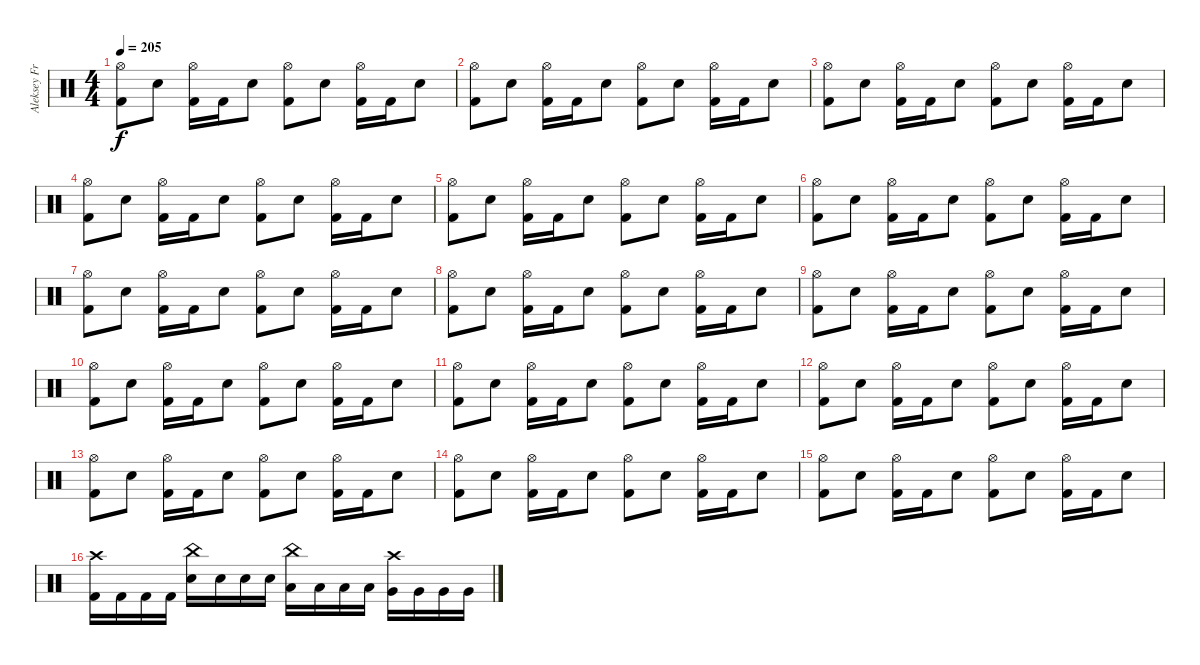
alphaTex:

\track ("Aleksey Frolov" "Aleksey Fr") {instrument percussion}
\staff {score}
\articulation defaults
\ts (4 4)
\tempo 205
\clef neutral
\ks c
("Kick (hit) 2" "Hi-Hat (open)").8{dy f} "Electric Snare (hit)".8 ("Kick (hit) 2" "Hi-Hat (open)").16 "Kick (hit) 2".16 "Electric Snare (hit)".8 ("Kick (hit) 2" "Hi-Hat (open)").8 "Electric Snare (hit)".8 ("Kick (hit) 2" "Hi-Hat (open)").16 "Kick (hit) 2".16 "Electric Snare (hit)".8 |
("Kick (hit) 2" "Hi-Hat (open)").8 "Electric Snare (hit)".8 ("Kick (hit) 2" "Hi-Hat (open)").16 "Kick (hit) 2".16 "Electric Snare (hit)".8 ("Kick (hit) 2" "Hi-Hat (open)").8 "Electric Snare (hit)".8 ("Kick (hit) 2" "Hi-Hat (open)").16 "Kick (hit) 2".16 "Electric Snare (hit)".8 |
("Kick (hit) 2" "Hi-Hat (open)").8 "Electric Snare (hit)".8 ("Kick (hit) 2" "Hi-Hat (open)").16 "Kick (hit) 2".16 "Electric Snare (hit)".8 ("Kick (hit) 2" "Hi-Hat (open)").8 "Electric Snare (hit)".8 ("Kick (hit) 2" "Hi-Hat (open)").16 "Kick (hit) 2".16 "Electric Snare (hit)".8 |
("Kick (hit) 2" "Hi-Hat (open)").8 "Electric Snare (hit)".8 ("Kick (hit) 2" "Hi-Hat (open)").16 "Kick (hit) 2".16 "Electric Snare (hit)".8 ("Kick (hit) 2" "Hi-Hat (open)").8 "Electric Snare (hit)".8 ("Kick (hit) 2" "Hi-Hat (open)").16 "Kick (hit) 2".16 "Electric Snare (hit)".8 |
("Kick (hit) 2" "Hi-Hat (open)").8 "Electric Snare (hit)".8 ("Kick (hit) 2" "Hi-Hat (open)").16 "Kick (hit) 2".16 "Electric Snare (hit)".8 ("Kick (hit) 2" "Hi-Hat (open)").8 "Electric Snare (hit)".8 ("Kick (hit) 2" "Hi-Hat (open)").16 "Kick (hit) 2".16 "Electric Snare (hit)".8 |
("Kick (hit) 2" "Hi-Hat (open)").8 "Electric Snare (hit)".8 ("Kick (hit) 2" "Hi-Hat (open)").16 "Kick (hit) 2".16 "Electric Snare (hit)".8 ("Kick (hit) 2" "Hi-Hat (open)").8 "Electric Snare (hit)".8 ("Kick (hit) 2" "Hi-Hat (open)").16 "Kick (hit) 2".16 "Electric Snare (hit)".8 |
("Kick (hit) 2" "Hi-Hat (open)").8 "Electric Snare (hit)".8 ("Kick (hit) 2" "Hi-Hat (open)").16 "Kick (hit) 2".16 "Electric Snare (hit)".8 ("Kick (hit) 2" "Hi-Hat (open)").8 "Electric Snare (hit)".8 ("Kick (hit) 2" "Hi-Hat (open)").16 "Kick (hit) 2".16 "Electric Snare (hit)".8 |
("Kick (hit) 2" "Hi-Hat (open)").8 "Electric Snare (hit)".8 ("Kick (hit) 2" "Hi-Hat (open)").16 "Kick (hit) 2".16 "Electric Snare (hit)".8 ("Kick (hit) 2" "Hi-Hat (open)").8 "Electric Snare (hit)".8 ("Kick (hit) 2" "Hi-Hat (open)").16 "Kick (hit) 2".16 "Electric Snare (hit)".8 |
("Kick (hit) 2" "Hi-Hat (open)").8 "Electric Snare (hit)".8 ("Kick (hit) 2" "Hi-Hat (open)").16 "Kick (hit) 2".16 "Electric Snare (hit)".8 ("Kick (hit) 2" "Hi-Hat (open)").8 "Electric Snare (hit)".8 ("Kick (hit) 2" "Hi-Hat (open)").16 "Kick (hit) 2".16 "Electric Snare (hit)".8 |
("Kick (hit) 2" "Hi-Hat (open)").8 "Electric Snare (hit)".8 ("Kick (hit) 2" "Hi-Hat (open)").16 "Kick (hit) 2".16 "Electric Snare (hit)".8 ("Kick (hit) 2" "Hi-Hat (open)").8 "Electric Snare (hit)".8 ("Kick (hit) 2" "Hi-Hat (open)").16 "Kick (hit) 2".16 "Electric Snare (hit)".8 |
("Kick (hit) 2" "Hi-Hat (open)").8 "Electric Snare (hit)".8 ("Kick (hit) 2" "Hi-Hat (open)").16 "Kick (hit) 2".16 "Electric Snare (hit)".8 ("Kick (hit) 2" "Hi-Hat (open)").8 "Electric Snare (hit)".8 ("Kick (hit) 2" "Hi-Hat (open)").16 "Kick (hit) 2".16 "Electric Snare (hit)".8 |
("Kick (hit) 2" "Hi-Hat (open)").8 "Electric Snare (hit)".8 ("Kick (hit) 2" "Hi-Hat (open)").16 "Kick (hit) 2".16 "Electric Snare (hit)".8 ("Kick (hit) 2" "Hi-Hat (open)").8 "Electric Snare (hit)".8 ("Kick (hit) 2" "Hi-Hat (open)").16 "Kick (hit) 2".16 "Electric Snare (hit)".8 |
("Kick (hit) 2" "Hi-Hat (open)").8 "Electric Snare (hit)".8 ("Kick (hit) 2" "Hi-Hat (open)").16 "Kick (hit) 2".16 "Electric Snare (hit)".8 ("Kick (hit) 2" "Hi-Hat (open)").8 "Electric Snare (hit)".8 ("Kick (hit) 2" "Hi-Hat (open)").16 "Kick (hit) 2".16 "Electric Snare (hit)".8 |
("Kick (hit) 2" "Hi-Hat (open)").8 "Electric Snare (hit)".8 ("Kick (hit) 2" "Hi-Hat (open)").16 "Kick (hit) 2".16 "Electric Snare (hit)".8 ("Kick (hit) 2" "Hi-Hat (open)").8 "Electric Snare (hit)".8 ("Kick (hit) 2" "Hi-Hat (open)").16 "Kick (hit) 2".16 "Electric Snare (hit)".8 |
("Kick (hit) 2" "Hi-Hat (open)").8 "Electric Snare (hit)".8 ("Kick (hit) 2" "Hi-Hat (open)").16 "Kick (hit) 2".16 "Electric Snare (hit)".8 ("Kick (hit) 2" "Hi-Hat (open)").8 "Electric Snare (hit)".8 ("Kick (hit) 2" "Hi-Hat (open)").16 "Kick (hit) 2".16 "Electric Snare (hit)".8 |
("Crash high (hit)" "Kick (hit) 2").16 "Kick (hit) 2".16 "Kick (hit) 2".16 "Kick (hit) 2".16 ("China (hit)" "Snare (hit) 2").16 "Snare (hit) 2".16 "Snare (hit) 2".16 "Snare (hit) 2".16 ("China (hit)" "Low Floor Tom (hit)").16 "Low Floor Tom (hit)".16 "Low Floor Tom (hit)".16 "Low Floor Tom (hit)".16 ("Very Low Tom (hit)" "Crash high (hit)").16 "Very Low Tom (hit)".16 "Very Low Tom (hit)".16 "Very Low Tom (hit)".16
